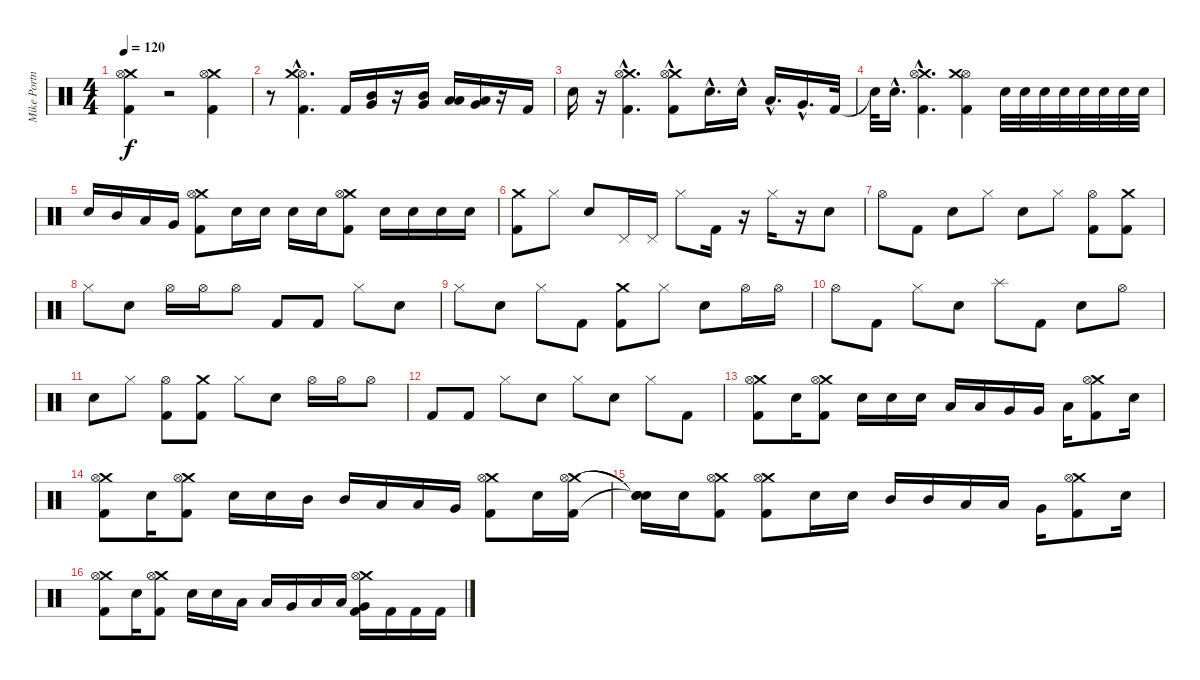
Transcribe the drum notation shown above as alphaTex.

\track ("Mike Portnoy - Batterie" "Mike Portn") {instrument percussion}
\staff {score}
\articulation defaults
\ts (4 4)
\tempo 120
\clef neutral
\ks c
("Crash medium (hit)" "Hi-Hat (open)" "Kick (hit) 2").4{dy f} r.2 ("Crash medium (hit)" "Hi-Hat (open)" "Kick (hit) 2").4 |
r.8 ("Kick (hit) 2"{hac} "Hi-Hat (open)"{hac} "Crash medium (hit)"{hac}).4{d} "Kick (hit) 2".16 ("Very Low Tom (hit)" "Mid Tom (hit)").16 r.16 ("Very Low Tom (hit)" "Mid Tom (hit)").16 ("Low Floor Tom (hit)" "Low Tom (hit)").16 ("Low Floor Tom (hit)" "Very Low Tom (hit)").16 r.16 "Kick (hit) 2".16 |
"Electric Snare (hit)".16 r.16 ("Crash medium (hit)"{hac} "Hi-Hat (open)"{hac} "Kick (hit) 2"{hac}).4{d} ("Crash medium (hit)"{hac} "Hi-Hat (open)"{hac} "Kick (hit) 2"{hac}).8 "Electric Snare (hit)"{hac}.16{d} "Electric Snare (hit)"{hac}.16 "Low Tom (hit)"{hac}.16{d} "Very Low Tom (hit)"{hac}.16{d} "Kick (hit) 2".32 |
"Snare (hit)"{t}.32 "Electric Snare (hit)"{hac}.16{d} ("Crash medium (hit)"{hac} "Hi-Hat (open)"{hac} "Kick (hit) 2"{hac}).4{d} ("Kick (hit) 2" "Hi-Hat (open)" "Crash medium (hit)").4 "Electric Snare (hit)".32 "Electric Snare (hit)".32 "Electric Snare (hit)".32 "Electric Snare (hit)".32 "Electric Snare (hit)".32 "Electric Snare (hit)".32 "Electric Snare (hit)".32 "Electric Snare (hit)".32 |
"Electric Snare (hit)".16 "Mid Tom (hit)".16 "Low Tom (hit)".16 "Very Low Tom (hit)".16 ("Crash medium (hit)" "Hi-Hat (open)" "Kick (hit) 2").8 "Electric Snare (hit)".16 "Electric Snare (hit)".16 "Electric Snare (hit)".16 "Electric Snare (hit)".16 ("Crash medium (hit)" "Hi-Hat (open)" "Kick (hit) 2").8 "Electric Snare (hit)".16 "Electric Snare (hit)".16 "Electric Snare (hit)".16 "Electric Snare (hit)".16 |
("Crash medium (hit)" "Kick (hit) 2").8 "Hi-Hat (closed)".8 "Electric Snare (hit)".8 "Pedal Hi-Hat (hit)".16 "Pedal Hi-Hat (hit)".16 "Hi-Hat (closed)".8 "Kick (hit) 2".16 r.16 "Hi-Hat (closed)".16 r.16 "Electric Snare (hit)".8 |
"Hi-Hat (open)".8 "Kick (hit) 2".8 "Electric Snare (hit)".8 "Hi-Hat (closed)".8 "Electric Snare (hit)".8 "Hi-Hat (closed)".8 ("Hi-Hat (open)" "Kick (hit) 2").8 ("Kick (hit) 2" "Crash medium (hit)").8 |
"Hi-Hat (closed)".8 "Electric Snare (hit)".8 "Hi-Hat (open)".16 "Hi-Hat (open)".16 "Hi-Hat (open)".8 "Kick (hit) 2".8 "Kick (hit) 2".8 "Hi-Hat (closed)".8 "Electric Snare (hit)".8 |
"Hi-Hat (closed)".8 "Electric Snare (hit)".8 "Hi-Hat (closed)".8 "Kick (hit) 2".8 ("Kick (hit) 2" "Crash medium (hit)").8 "Hi-Hat (closed)".8 "Electric Snare (hit)".8 "Hi-Hat (open)".16 "Hi-Hat (open)".16 |
"Hi-Hat (open)".8 "Kick (hit) 2".8 "Hi-Hat (closed)".8 "Electric Snare (hit)".8 "Splash (hit)".8 "Kick (hit) 2".8 "Electric Snare (hit)".8 "Hi-Hat (open)".8 |
"Electric Snare (hit)".8 "Hi-Hat (closed)".8 ("Hi-Hat (open)" "Kick (hit) 2").8 ("Kick (hit) 2" "Crash medium (hit)").8 "Hi-Hat (closed)".8 "Electric Snare (hit)".8 "Hi-Hat (open)".16 "Hi-Hat (open)".16 "Hi-Hat (open)".8 |
"Kick (hit) 2".8 "Kick (hit) 2".8 "Hi-Hat (closed)".8 "Electric Snare (hit)".8 "Hi-Hat (closed)".8 "Electric Snare (hit)".8 "Hi-Hat (closed)".8 "Kick (hit) 2".8 |
("Crash medium (hit)" "Hi-Hat (open)" "Kick (hit) 2").8 "Electric Snare (hit)".16 ("Crash medium (hit)" "Hi-Hat (open)" "Kick (hit) 2").8 "Electric Snare (hit)".16 "Electric Snare (hit)".16 "Electric Snare (hit)".16 "Low Tom (hit)".16 "Low Tom (hit)".16 "Very Low Tom (hit)".16 "Very Low Tom (hit)".16 "Low Floor Tom (hit)".16 ("Crash medium (hit)" "Hi-Hat (open)" "Kick (hit) 2").8 "Electric Snare (hit)".16 |
("Crash medium (hit)" "Hi-Hat (open)" "Kick (hit) 2").8 "Electric Snare (hit)".16 ("Crash medium (hit)" "Hi-Hat (open)" "Kick (hit) 2").8 "Electric Snare (hit)".16 "Electric Snare (hit)".16 "Mid Tom (hit)".16 "Mid Tom (hit)".16 "Low Tom (hit)".16 "Low Tom (hit)".16 "Very Low Tom (hit)".16 ("Crash medium (hit)" "Hi-Hat (open)" "Kick (hit) 2").8 "Electric Snare (hit)".16 ("Crash medium (hit)" "Hi-Hat (open)" "Kick (hit) 2").16 |
("Snare (hit)"{t} "Snare (hit)"{t} "Snare (hit)"{t}).16 "Electric Snare (hit)".16 ("Crash medium (hit)" "Hi-Hat (open)" "Kick (hit) 2").8 ("Crash medium (hit)" "Hi-Hat (open)" "Kick (hit) 2").8 "Electric Snare (hit)".16 "Electric Snare (hit)".16 "Mid Tom (hit)".16 "Mid Tom (hit)".16 "Low Tom (hit)".16 "Low Tom (hit)".16 "Very Low Tom (hit)".16 ("Crash medium (hit)" "Hi-Hat (open)" "Kick (hit) 2").8 "Electric Snare (hit)".16 |
("Crash medium (hit)" "Hi-Hat (open)" "Kick (hit) 2").8 "Electric Snare (hit)".16 ("Crash medium (hit)" "Hi-Hat (open)" "Kick (hit) 2").8 "Electric Snare (hit)".16 "Electric Snare (hit)".16 "Low Tom (hit)".16 "Low Tom (hit)".16 "Very Low Tom (hit)".16 "Low Floor Tom (hit)".16 "Low Floor Tom (hit)".16 ("Very Low Tom (hit)" "Kick (hit) 2" "Crash medium (hit)" "Hi-Hat (open)").16 "Kick (hit) 2".16 "Kick (hit) 2".16 "Kick (hit) 2".16
